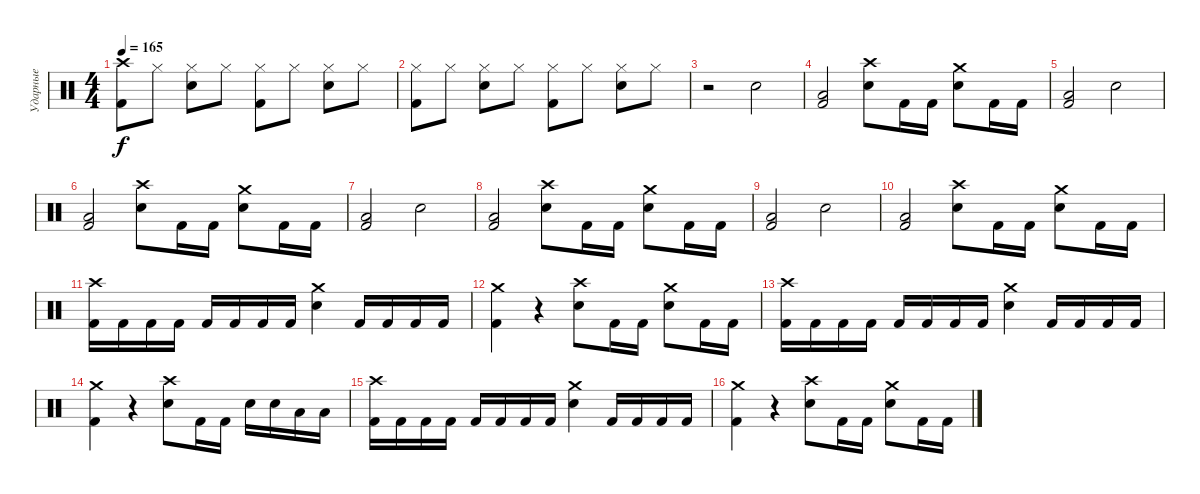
\track ("Ударные" "Ударные") {instrument percussion}
\staff {score}
\articulation defaults
\ts (4 4)
\tempo 165
\clef neutral
\ks c
("Kick (hit) 2" "Crash high (hit)").8{dy f} "Hi-Hat (closed)".8 ("Snare (hit) 2" "Hi-Hat (closed)").8 "Hi-Hat (closed)".8 ("Hi-Hat (closed)" "Kick (hit) 2").8 "Hi-Hat (closed)".8 ("Snare (hit) 2" "Hi-Hat (closed)").8 "Hi-Hat (closed)".8 |
("Kick (hit) 2" "Hi-Hat (closed)").8 "Hi-Hat (closed)".8 ("Snare (hit) 2" "Hi-Hat (closed)").8 "Hi-Hat (closed)".8 ("Hi-Hat (closed)" "Kick (hit) 2").8 "Hi-Hat (closed)".8 ("Snare (hit) 2" "Hi-Hat (closed)").8 "Hi-Hat (closed)".8 |
r.2 "Snare (hit) 2".2 |
("Kick (hit) 2" "Low Tom (hit)").2 ("Snare (hit) 2" "Crash high (hit)").8 "Kick (hit) 2".16 "Kick (hit) 2".16 ("Snare (hit) 2" "Crash medium (hit)").8 "Kick (hit) 2".16 "Kick (hit) 2".16 |
("Kick (hit) 2" "Low Tom (hit)").2 "Snare (hit) 2".2 |
("Kick (hit) 2" "Low Tom (hit)").2 ("Snare (hit) 2" "Crash high (hit)").8 "Kick (hit) 2".16 "Kick (hit) 2".16 ("Snare (hit) 2" "Crash medium (hit)").8 "Kick (hit) 2".16 "Kick (hit) 2".16 |
("Kick (hit) 2" "Low Tom (hit)").2 "Snare (hit) 2".2 |
("Kick (hit) 2" "Low Tom (hit)").2 ("Snare (hit) 2" "Crash high (hit)").8 "Kick (hit) 2".16 "Kick (hit) 2".16 ("Snare (hit) 2" "Crash medium (hit)").8 "Kick (hit) 2".16 "Kick (hit) 2".16 |
("Kick (hit) 2" "Low Tom (hit)").2 "Snare (hit) 2".2 |
("Kick (hit) 2" "Low Tom (hit)").2 ("Snare (hit) 2" "Crash high (hit)").8 "Kick (hit) 2".16 "Kick (hit) 2".16 ("Snare (hit) 2" "Crash medium (hit)").8 "Kick (hit) 2".16 "Kick (hit) 2".16 |
("Kick (hit) 2" "Crash high (hit)").16 "Kick (hit) 2".16 "Kick (hit) 2".16 "Kick (hit) 2".16 "Kick (hit) 2".16 "Kick (hit) 2".16 "Kick (hit) 2".16 "Kick (hit) 2".16 ("Snare (hit) 2" "Crash medium (hit)").4 "Kick (hit) 2".16 "Kick (hit) 2".16 "Kick (hit) 2".16 "Kick (hit) 2".16 |
("Kick (hit) 2" "Crash medium (hit)").4 r.4 ("Snare (hit) 2" "Crash high (hit)").8 "Kick (hit) 2".16 "Kick (hit) 2".16 ("Snare (hit) 2" "Crash medium (hit)").8 "Kick (hit) 2".16 "Kick (hit) 2".16 |
("Kick (hit) 2" "Crash high (hit)").16 "Kick (hit) 2".16 "Kick (hit) 2".16 "Kick (hit) 2".16 "Kick (hit) 2".16 "Kick (hit) 2".16 "Kick (hit) 2".16 "Kick (hit) 2".16 ("Snare (hit) 2" "Crash medium (hit)").4 "Kick (hit) 2".16 "Kick (hit) 2".16 "Kick (hit) 2".16 "Kick (hit) 2".16 |
("Kick (hit) 2" "Crash medium (hit)").4 r.4 ("Snare (hit) 2" "Crash high (hit)").8 "Kick (hit) 2".16 "Kick (hit) 2".16 "Snare (hit) 2".16 "Snare (hit) 2".16 "Low Tom (hit)".16 "Low Tom (hit)".16 |
("Kick (hit) 2" "Crash high (hit)").16 "Kick (hit) 2".16 "Kick (hit) 2".16 "Kick (hit) 2".16 "Kick (hit) 2".16 "Kick (hit) 2".16 "Kick (hit) 2".16 "Kick (hit) 2".16 ("Snare (hit) 2" "Crash medium (hit)").4 "Kick (hit) 2".16 "Kick (hit) 2".16 "Kick (hit) 2".16 "Kick (hit) 2".16 |
("Kick (hit) 2" "Crash medium (hit)").4 r.4 ("Snare (hit) 2" "Crash high (hit)").8 "Kick (hit) 2".16 "Kick (hit) 2".16 ("Snare (hit) 2" "Crash medium (hit)").8 "Kick (hit) 2".16 "Kick (hit) 2".16
